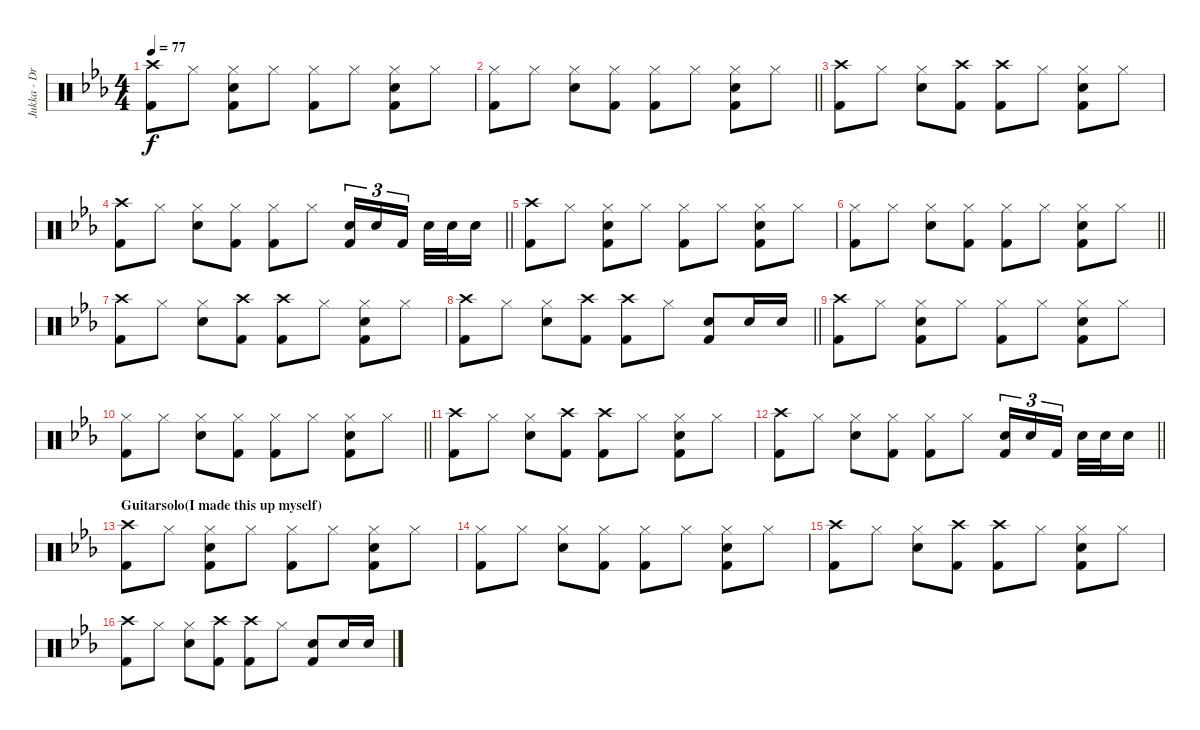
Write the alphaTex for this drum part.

\track ("Jukka - Drums" "Jukka - Dr") {instrument percussion}
\staff {score}
\articulation defaults
\ts (4 4)
\tempo 77
\clef neutral
\ks cminor
("Crash high (hit)" "Kick (hit) 2").8{dy f} "Hi-Hat (closed)".8 ("Snare (hit) 2" "Hi-Hat (closed)" "Kick (hit) 2").8 "Hi-Hat (closed)".8 ("Hi-Hat (closed)" "Kick (hit) 2").8 "Hi-Hat (closed)".8 ("Hi-Hat (closed)" "Snare (hit) 2" "Kick (hit) 2").8 "Hi-Hat (closed)".8 |
\barLineRight lightlight
("Hi-Hat (closed)" "Kick (hit) 2").8 "Hi-Hat (closed)".8 ("Snare (hit) 2" "Hi-Hat (closed)").8 ("Hi-Hat (closed)" "Kick (hit) 2").8 ("Hi-Hat (closed)" "Kick (hit) 2").8 "Hi-Hat (closed)".8 ("Hi-Hat (closed)" "Snare (hit) 2" "Kick (hit) 2").8 "Hi-Hat (closed)".8 |
("Crash high (hit)" "Kick (hit) 2").8 "Hi-Hat (closed)".8 ("Snare (hit) 2" "Hi-Hat (closed)").8 ("Crash high (hit)" "Kick (hit) 2").8 ("Crash high (hit)" "Kick (hit) 2").8 "Hi-Hat (closed)".8 ("Hi-Hat (closed)" "Snare (hit) 2" "Kick (hit) 2").8 "Hi-Hat (closed)".8 |
\barLineRight lightlight
("Crash high (hit)" "Kick (hit) 2").8 "Hi-Hat (closed)".8 ("Snare (hit) 2" "Hi-Hat (closed)").8 ("Hi-Hat (closed)" "Kick (hit) 2").8 ("Hi-Hat (closed)" "Kick (hit) 2").8 "Hi-Hat (closed)".8 ("Snare (hit) 2" "Kick (hit) 2").16{tu (3 2)} "Snare (hit) 2".16{tu (3 2)} "Kick (hit) 2".16{tu (3 2) beam splitsecondary} "Snare (hit) 2".32 "Snare (hit) 2".32 "Snare (hit) 2".16 |
("Crash high (hit)" "Kick (hit) 2").8 "Hi-Hat (closed)".8 ("Snare (hit) 2" "Hi-Hat (closed)" "Kick (hit) 2").8 "Hi-Hat (closed)".8 ("Hi-Hat (closed)" "Kick (hit) 2").8 "Hi-Hat (closed)".8 ("Hi-Hat (closed)" "Snare (hit) 2" "Kick (hit) 2").8 "Hi-Hat (closed)".8 |
\barLineRight lightlight
("Hi-Hat (closed)" "Kick (hit) 2").8 "Hi-Hat (closed)".8 ("Snare (hit) 2" "Hi-Hat (closed)").8 ("Hi-Hat (closed)" "Kick (hit) 2").8 ("Hi-Hat (closed)" "Kick (hit) 2").8 "Hi-Hat (closed)".8 ("Hi-Hat (closed)" "Snare (hit) 2" "Kick (hit) 2").8 "Hi-Hat (closed)".8 |
("Crash high (hit)" "Kick (hit) 2").8 "Hi-Hat (closed)".8 ("Snare (hit) 2" "Hi-Hat (closed)").8 ("Crash high (hit)" "Kick (hit) 2").8 ("Crash high (hit)" "Kick (hit) 2").8 "Hi-Hat (closed)".8 ("Hi-Hat (closed)" "Snare (hit) 2" "Kick (hit) 2").8 "Hi-Hat (closed)".8 |
\barLineRight lightlight
("Crash high (hit)" "Kick (hit) 2").8 "Hi-Hat (closed)".8 ("Snare (hit) 2" "Hi-Hat (closed)").8 ("Crash high (hit)" "Kick (hit) 2").8 ("Crash high (hit)" "Kick (hit) 2").8 "Hi-Hat (closed)".8 ("Snare (hit) 2" "Kick (hit) 2").8 "Snare (hit) 2".16 "Snare (hit) 2".16 |
("Crash high (hit)" "Kick (hit) 2").8 "Hi-Hat (closed)".8 ("Snare (hit) 2" "Hi-Hat (closed)" "Kick (hit) 2").8 "Hi-Hat (closed)".8 ("Hi-Hat (closed)" "Kick (hit) 2").8 "Hi-Hat (closed)".8 ("Hi-Hat (closed)" "Snare (hit) 2" "Kick (hit) 2").8 "Hi-Hat (closed)".8 |
\barLineRight lightlight
("Hi-Hat (closed)" "Kick (hit) 2").8 "Hi-Hat (closed)".8 ("Snare (hit) 2" "Hi-Hat (closed)").8 ("Hi-Hat (closed)" "Kick (hit) 2").8 ("Hi-Hat (closed)" "Kick (hit) 2").8 "Hi-Hat (closed)".8 ("Hi-Hat (closed)" "Snare (hit) 2" "Kick (hit) 2").8 "Hi-Hat (closed)".8 |
("Crash high (hit)" "Kick (hit) 2").8 "Hi-Hat (closed)".8 ("Snare (hit) 2" "Hi-Hat (closed)").8 ("Crash high (hit)" "Kick (hit) 2").8 ("Crash high (hit)" "Kick (hit) 2").8 "Hi-Hat (closed)".8 ("Hi-Hat (closed)" "Snare (hit) 2" "Kick (hit) 2").8 "Hi-Hat (closed)".8 |
\barLineRight lightlight
("Crash high (hit)" "Kick (hit) 2").8 "Hi-Hat (closed)".8 ("Snare (hit) 2" "Hi-Hat (closed)").8 ("Hi-Hat (closed)" "Kick (hit) 2").8 ("Hi-Hat (closed)" "Kick (hit) 2").8 "Hi-Hat (closed)".8 ("Snare (hit) 2" "Kick (hit) 2").16{tu (3 2)} "Snare (hit) 2".16{tu (3 2)} "Kick (hit) 2".16{tu (3 2) beam splitsecondary} "Snare (hit) 2".32 "Snare (hit) 2".32 "Snare (hit) 2".16 |
\section ("" "Guitarsolo(I made this up myself)")
("Crash high (hit)" "Kick (hit) 2").8 "Hi-Hat (closed)".8 ("Snare (hit) 2" "Hi-Hat (closed)" "Kick (hit) 2").8 "Hi-Hat (closed)".8 ("Hi-Hat (closed)" "Kick (hit) 2").8 "Hi-Hat (closed)".8 ("Hi-Hat (closed)" "Snare (hit) 2" "Kick (hit) 2").8 "Hi-Hat (closed)".8 |
("Hi-Hat (closed)" "Kick (hit) 2").8 "Hi-Hat (closed)".8 ("Snare (hit) 2" "Hi-Hat (closed)").8 ("Hi-Hat (closed)" "Kick (hit) 2").8 ("Hi-Hat (closed)" "Kick (hit) 2").8 "Hi-Hat (closed)".8 ("Hi-Hat (closed)" "Snare (hit) 2" "Kick (hit) 2").8 "Hi-Hat (closed)".8 |
("Crash high (hit)" "Kick (hit) 2").8 "Hi-Hat (closed)".8 ("Snare (hit) 2" "Hi-Hat (closed)").8 ("Crash high (hit)" "Kick (hit) 2").8 ("Crash high (hit)" "Kick (hit) 2").8 "Hi-Hat (closed)".8 ("Hi-Hat (closed)" "Snare (hit) 2" "Kick (hit) 2").8 "Hi-Hat (closed)".8 |
("Crash high (hit)" "Kick (hit) 2").8 "Hi-Hat (closed)".8 ("Snare (hit) 2" "Hi-Hat (closed)").8 ("Crash high (hit)" "Kick (hit) 2").8 ("Crash high (hit)" "Kick (hit) 2").8 "Hi-Hat (closed)".8 ("Snare (hit) 2" "Kick (hit) 2").8 "Snare (hit) 2".16 "Snare (hit) 2".16
